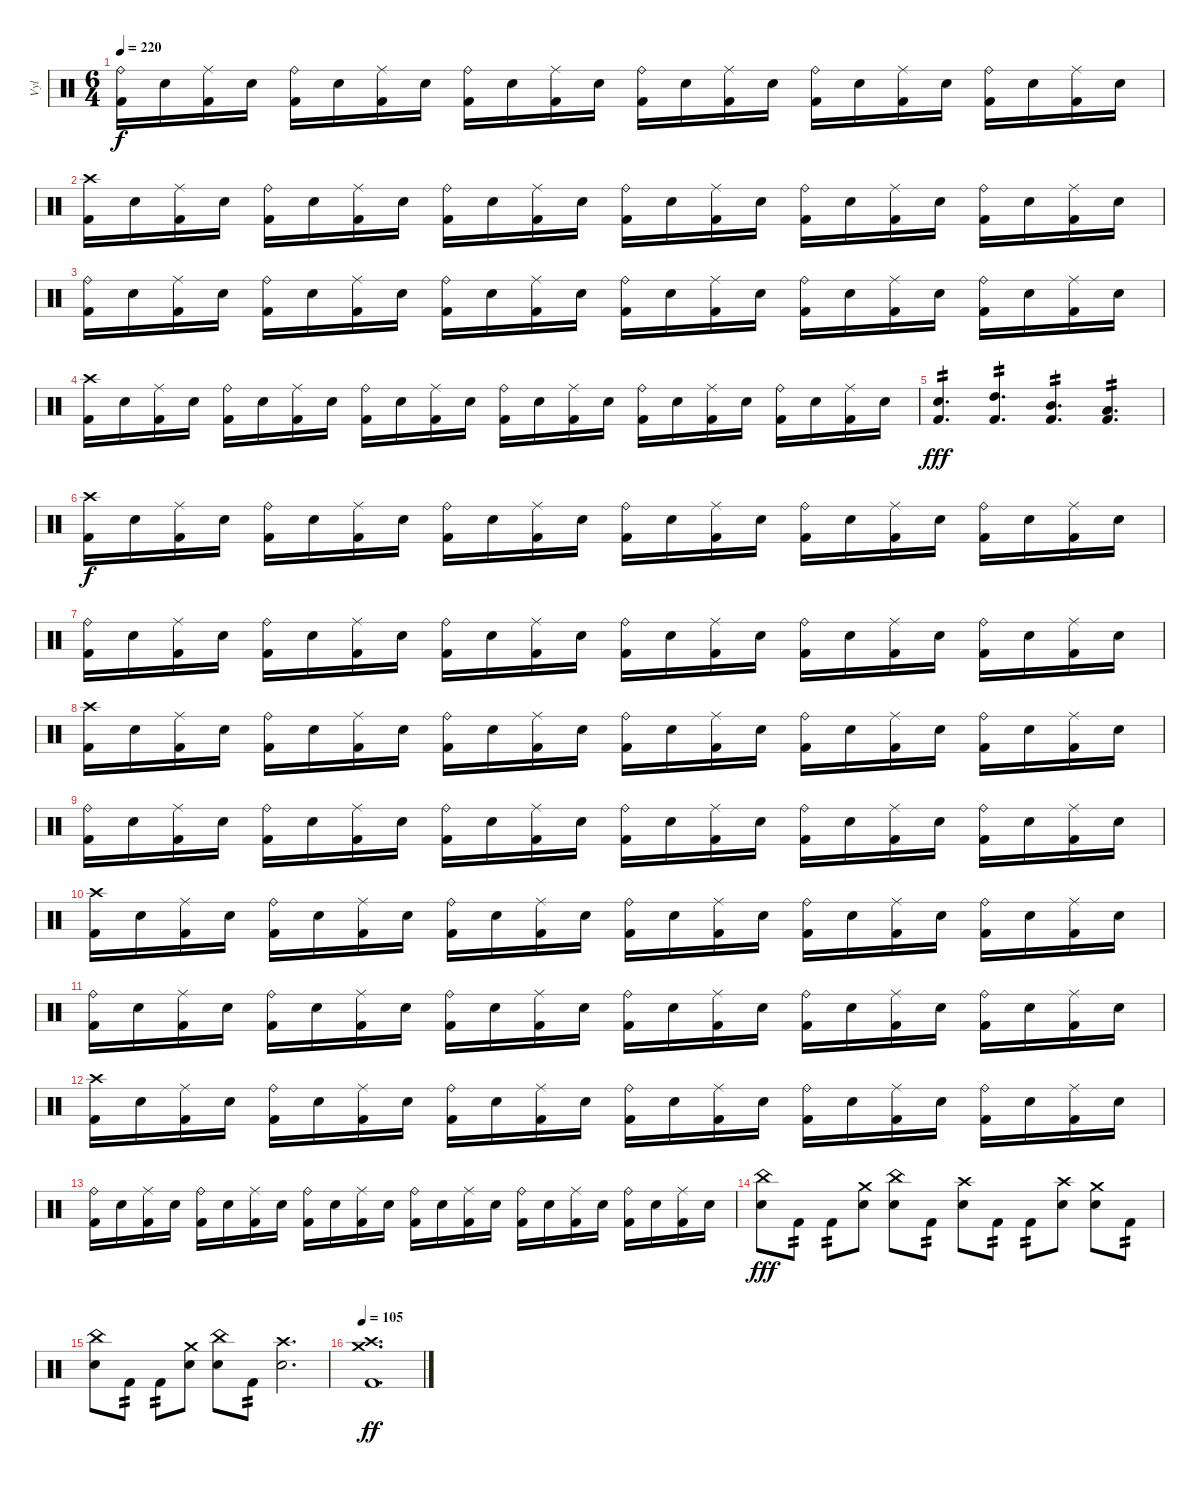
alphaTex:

\track ("Vyl" "Vyl") {instrument percussion}
\staff {score}
\articulation defaults
\ts (6 4)
\tempo 220
\clef neutral
\ks c
("Ride (bell)" "Kick (hit) 2").16{dy f} "Snare (hit) 2".16 ("Ride (middle)" "Kick (hit) 2").16 "Snare (hit) 2".16 ("Ride (bell)" "Kick (hit) 2").16 "Snare (hit) 2".16 ("Ride (middle)" "Kick (hit) 2").16 "Snare (hit) 2".16 ("Ride (bell)" "Kick (hit) 2").16 "Snare (hit) 2".16 ("Ride (middle)" "Kick (hit) 2").16 "Snare (hit) 2".16 ("Ride (bell)" "Kick (hit) 2").16 "Snare (hit) 2".16 ("Ride (middle)" "Kick (hit) 2").16 "Snare (hit) 2".16 ("Ride (bell)" "Kick (hit) 2").16 "Snare (hit) 2".16 ("Ride (middle)" "Kick (hit) 2").16 "Snare (hit) 2".16 ("Ride (bell)" "Kick (hit) 2").16 "Snare (hit) 2".16 ("Ride (middle)" "Kick (hit) 2").16 "Snare (hit) 2".16 |
("Crash high (hit)" "Kick (hit) 2").16 "Snare (hit) 2".16 ("Ride (middle)" "Kick (hit) 2").16 "Snare (hit) 2".16 ("Ride (bell)" "Kick (hit) 2").16 "Snare (hit) 2".16 ("Ride (middle)" "Kick (hit) 2").16 "Snare (hit) 2".16 ("Ride (bell)" "Kick (hit) 2").16 "Snare (hit) 2".16 ("Ride (middle)" "Kick (hit) 2").16 "Snare (hit) 2".16 ("Ride (bell)" "Kick (hit) 2").16 "Snare (hit) 2".16 ("Ride (middle)" "Kick (hit) 2").16 "Snare (hit) 2".16 ("Ride (bell)" "Kick (hit) 2").16 "Snare (hit) 2".16 ("Ride (middle)" "Kick (hit) 2").16 "Snare (hit) 2".16 ("Ride (bell)" "Kick (hit) 2").16 "Snare (hit) 2".16 ("Ride (middle)" "Kick (hit) 2").16 "Snare (hit) 2".16 |
("Ride (bell)" "Kick (hit) 2").16 "Snare (hit) 2".16 ("Ride (middle)" "Kick (hit) 2").16 "Snare (hit) 2".16 ("Ride (bell)" "Kick (hit) 2").16 "Snare (hit) 2".16 ("Ride (middle)" "Kick (hit) 2").16 "Snare (hit) 2".16 ("Ride (bell)" "Kick (hit) 2").16 "Snare (hit) 2".16 ("Ride (middle)" "Kick (hit) 2").16 "Snare (hit) 2".16 ("Ride (bell)" "Kick (hit) 2").16 "Snare (hit) 2".16 ("Ride (middle)" "Kick (hit) 2").16 "Snare (hit) 2".16 ("Ride (bell)" "Kick (hit) 2").16 "Snare (hit) 2".16 ("Ride (middle)" "Kick (hit) 2").16 "Snare (hit) 2".16 ("Ride (bell)" "Kick (hit) 2").16 "Snare (hit) 2".16 ("Ride (middle)" "Kick (hit) 2").16 "Snare (hit) 2".16 |
("Crash high (hit)" "Kick (hit) 2").16 "Snare (hit) 2".16 ("Ride (middle)" "Kick (hit) 2").16 "Snare (hit) 2".16 ("Ride (bell)" "Kick (hit) 2").16 "Snare (hit) 2".16 ("Ride (middle)" "Kick (hit) 2").16 "Snare (hit) 2".16 ("Ride (bell)" "Kick (hit) 2").16 "Snare (hit) 2".16 ("Ride (middle)" "Kick (hit) 2").16 "Snare (hit) 2".16 ("Ride (bell)" "Kick (hit) 2").16 "Snare (hit) 2".16 ("Ride (middle)" "Kick (hit) 2").16 "Snare (hit) 2".16 ("Ride (bell)" "Kick (hit) 2").16 "Snare (hit) 2".16 ("Ride (middle)" "Kick (hit) 2").16 "Snare (hit) 2".16 ("Ride (bell)" "Kick (hit) 2").16 "Snare (hit) 2".16 ("Ride (middle)" "Kick (hit) 2").16 "Snare (hit) 2".16 |
("Kick (hit) 2" "Snare (hit) 2").4{d tp 2 dy fff} ("Kick (hit) 2" "High Tom (hit)").4{d tp 2} ("Kick (hit) 2" "Mid Tom (hit)").4{d tp 2} ("Kick (hit) 2" "Low Tom (hit)").4{d tp 2} |
("Crash high (hit)" "Kick (hit) 2").16{dy f} "Snare (hit) 2".16 ("Ride (middle)" "Kick (hit) 2").16 "Snare (hit) 2".16 ("Ride (bell)" "Kick (hit) 2").16 "Snare (hit) 2".16 ("Ride (middle)" "Kick (hit) 2").16 "Snare (hit) 2".16 ("Ride (bell)" "Kick (hit) 2").16 "Snare (hit) 2".16 ("Ride (middle)" "Kick (hit) 2").16 "Snare (hit) 2".16 ("Ride (bell)" "Kick (hit) 2").16 "Snare (hit) 2".16 ("Ride (middle)" "Kick (hit) 2").16 "Snare (hit) 2".16 ("Ride (bell)" "Kick (hit) 2").16 "Snare (hit) 2".16 ("Ride (middle)" "Kick (hit) 2").16 "Snare (hit) 2".16 ("Ride (bell)" "Kick (hit) 2").16 "Snare (hit) 2".16 ("Ride (middle)" "Kick (hit) 2").16 "Snare (hit) 2".16 |
("Ride (bell)" "Kick (hit) 2").16 "Snare (hit) 2".16 ("Ride (middle)" "Kick (hit) 2").16 "Snare (hit) 2".16 ("Ride (bell)" "Kick (hit) 2").16 "Snare (hit) 2".16 ("Ride (middle)" "Kick (hit) 2").16 "Snare (hit) 2".16 ("Ride (bell)" "Kick (hit) 2").16 "Snare (hit) 2".16 ("Ride (middle)" "Kick (hit) 2").16 "Snare (hit) 2".16 ("Ride (bell)" "Kick (hit) 2").16 "Snare (hit) 2".16 ("Ride (middle)" "Kick (hit) 2").16 "Snare (hit) 2".16 ("Ride (bell)" "Kick (hit) 2").16 "Snare (hit) 2".16 ("Ride (middle)" "Kick (hit) 2").16 "Snare (hit) 2".16 ("Ride (bell)" "Kick (hit) 2").16 "Snare (hit) 2".16 ("Ride (middle)" "Kick (hit) 2").16 "Snare (hit) 2".16 |
("Crash high (hit)" "Kick (hit) 2").16 "Snare (hit) 2".16 ("Ride (middle)" "Kick (hit) 2").16 "Snare (hit) 2".16 ("Ride (bell)" "Kick (hit) 2").16 "Snare (hit) 2".16 ("Ride (middle)" "Kick (hit) 2").16 "Snare (hit) 2".16 ("Ride (bell)" "Kick (hit) 2").16 "Snare (hit) 2".16 ("Ride (middle)" "Kick (hit) 2").16 "Snare (hit) 2".16 ("Ride (bell)" "Kick (hit) 2").16 "Snare (hit) 2".16 ("Ride (middle)" "Kick (hit) 2").16 "Snare (hit) 2".16 ("Ride (bell)" "Kick (hit) 2").16 "Snare (hit) 2".16 ("Ride (middle)" "Kick (hit) 2").16 "Snare (hit) 2".16 ("Ride (bell)" "Kick (hit) 2").16 "Snare (hit) 2".16 ("Ride (middle)" "Kick (hit) 2").16 "Snare (hit) 2".16 |
("Ride (bell)" "Kick (hit) 2").16 "Snare (hit) 2".16 ("Ride (middle)" "Kick (hit) 2").16 "Snare (hit) 2".16 ("Ride (bell)" "Kick (hit) 2").16 "Snare (hit) 2".16 ("Ride (middle)" "Kick (hit) 2").16 "Snare (hit) 2".16 ("Ride (bell)" "Kick (hit) 2").16 "Snare (hit) 2".16 ("Ride (middle)" "Kick (hit) 2").16 "Snare (hit) 2".16 ("Ride (bell)" "Kick (hit) 2").16 "Snare (hit) 2".16 ("Ride (middle)" "Kick (hit) 2").16 "Snare (hit) 2".16 ("Ride (bell)" "Kick (hit) 2").16 "Snare (hit) 2".16 ("Ride (middle)" "Kick (hit) 2").16 "Snare (hit) 2".16 ("Ride (bell)" "Kick (hit) 2").16 "Snare (hit) 2".16 ("Ride (middle)" "Kick (hit) 2").16 "Snare (hit) 2".16 |
("Crash high (hit)" "Kick (hit) 2").16 "Snare (hit) 2".16 ("Ride (middle)" "Kick (hit) 2").16 "Snare (hit) 2".16 ("Ride (bell)" "Kick (hit) 2").16 "Snare (hit) 2".16 ("Ride (middle)" "Kick (hit) 2").16 "Snare (hit) 2".16 ("Ride (bell)" "Kick (hit) 2").16 "Snare (hit) 2".16 ("Ride (middle)" "Kick (hit) 2").16 "Snare (hit) 2".16 ("Ride (bell)" "Kick (hit) 2").16 "Snare (hit) 2".16 ("Ride (middle)" "Kick (hit) 2").16 "Snare (hit) 2".16 ("Ride (bell)" "Kick (hit) 2").16 "Snare (hit) 2".16 ("Ride (middle)" "Kick (hit) 2").16 "Snare (hit) 2".16 ("Ride (bell)" "Kick (hit) 2").16 "Snare (hit) 2".16 ("Ride (middle)" "Kick (hit) 2").16 "Snare (hit) 2".16 |
("Ride (bell)" "Kick (hit) 2").16 "Snare (hit) 2".16 ("Ride (middle)" "Kick (hit) 2").16 "Snare (hit) 2".16 ("Ride (bell)" "Kick (hit) 2").16 "Snare (hit) 2".16 ("Ride (middle)" "Kick (hit) 2").16 "Snare (hit) 2".16 ("Ride (bell)" "Kick (hit) 2").16 "Snare (hit) 2".16 ("Ride (middle)" "Kick (hit) 2").16 "Snare (hit) 2".16 ("Ride (bell)" "Kick (hit) 2").16 "Snare (hit) 2".16 ("Ride (middle)" "Kick (hit) 2").16 "Snare (hit) 2".16 ("Ride (bell)" "Kick (hit) 2").16 "Snare (hit) 2".16 ("Ride (middle)" "Kick (hit) 2").16 "Snare (hit) 2".16 ("Ride (bell)" "Kick (hit) 2").16 "Snare (hit) 2".16 ("Ride (middle)" "Kick (hit) 2").16 "Snare (hit) 2".16 |
("Crash high (hit)" "Kick (hit) 2").16 "Snare (hit) 2".16 ("Ride (middle)" "Kick (hit) 2").16 "Snare (hit) 2".16 ("Ride (bell)" "Kick (hit) 2").16 "Snare (hit) 2".16 ("Ride (middle)" "Kick (hit) 2").16 "Snare (hit) 2".16 ("Ride (bell)" "Kick (hit) 2").16 "Snare (hit) 2".16 ("Ride (middle)" "Kick (hit) 2").16 "Snare (hit) 2".16 ("Ride (bell)" "Kick (hit) 2").16 "Snare (hit) 2".16 ("Ride (middle)" "Kick (hit) 2").16 "Snare (hit) 2".16 ("Ride (bell)" "Kick (hit) 2").16 "Snare (hit) 2".16 ("Ride (middle)" "Kick (hit) 2").16 "Snare (hit) 2".16 ("Ride (bell)" "Kick (hit) 2").16 "Snare (hit) 2".16 ("Ride (middle)" "Kick (hit) 2").16 "Snare (hit) 2".16 |
("Ride (bell)" "Kick (hit) 2").16 "Snare (hit) 2".16 ("Ride (middle)" "Kick (hit) 2").16 "Snare (hit) 2".16 ("Ride (bell)" "Kick (hit) 2").16 "Snare (hit) 2".16 ("Ride (middle)" "Kick (hit) 2").16 "Snare (hit) 2".16 ("Ride (bell)" "Kick (hit) 2").16 "Snare (hit) 2".16 ("Ride (middle)" "Kick (hit) 2").16 "Snare (hit) 2".16 ("Ride (bell)" "Kick (hit) 2").16 "Snare (hit) 2".16 ("Ride (middle)" "Kick (hit) 2").16 "Snare (hit) 2".16 ("Ride (bell)" "Kick (hit) 2").16 "Snare (hit) 2".16 ("Ride (middle)" "Kick (hit) 2").16 "Snare (hit) 2".16 ("Ride (bell)" "Kick (hit) 2").16 "Snare (hit) 2".16 ("Ride (middle)" "Kick (hit) 2").16 "Snare (hit) 2".16 |
("China (hit)" "Snare (hit) 2").8{dy fff} "Kick (hit) 2".8{tp 2} "Kick (hit) 2".8{tp 2} ("Crash medium (hit)" "Snare (hit) 2").8 ("China (hit)" "Snare (hit) 2").8 "Kick (hit) 2".8{tp 2} ("Crash high (hit)" "Snare (hit) 2").8 "Kick (hit) 2".8{tp 2} "Kick (hit) 2".8{tp 2} ("Crash high (hit)" "Snare (hit) 2").8 ("Crash medium (hit)" "Snare (hit) 2").8 "Kick (hit) 2".8{tp 2} |
("China (hit)" "Snare (hit) 2").8 "Kick (hit) 2".8{tp 2} "Kick (hit) 2".8{tp 2} ("Crash medium (hit)" "Snare (hit) 2").8 ("China (hit)" "Snare (hit) 2").8 "Kick (hit) 2".8{tp 2} ("Crash high (hit)" "Snare (hit) 2").2{d} |
\tempo 105
("Crash medium (hit)" "Crash high (hit)" "Kick (hit) 2").1{d dy ff}
